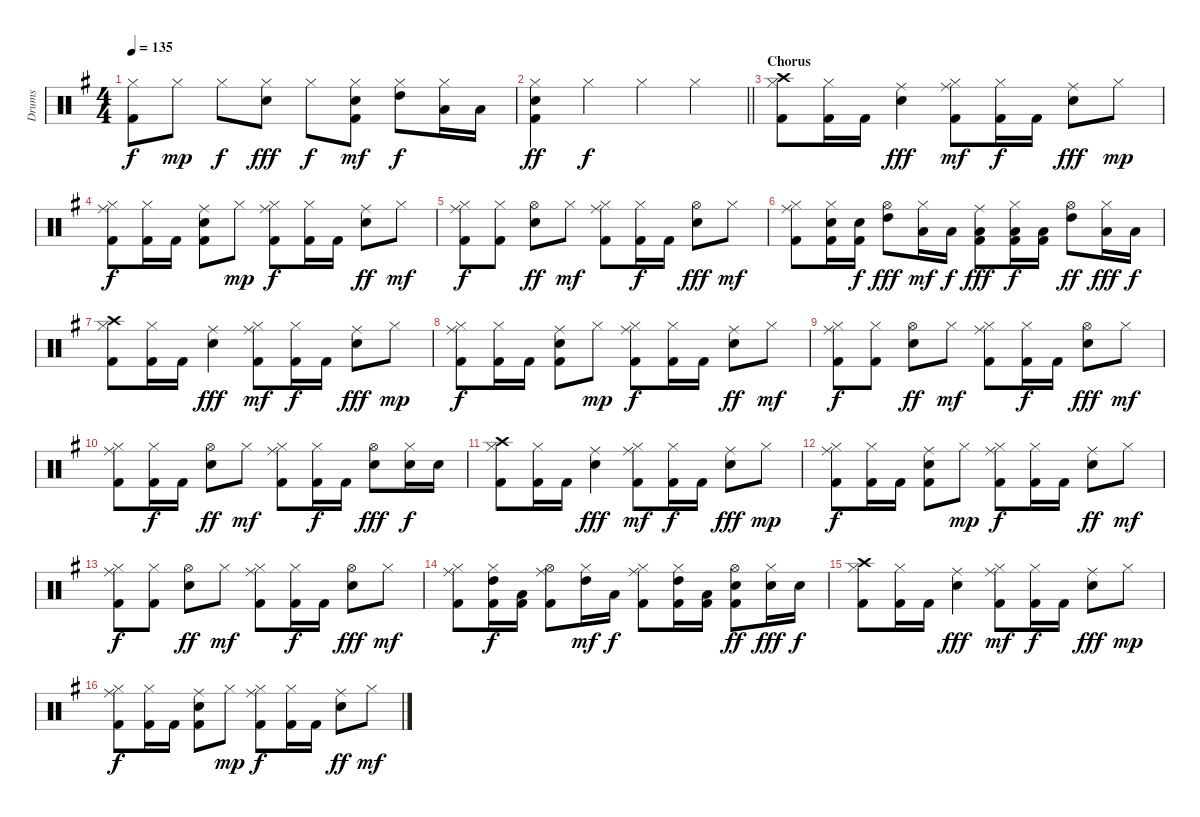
\track ("Drums" "Drums") {instrument percussion}
\staff {score}
\articulation defaults
\ts (4 4)
\tempo 135
\clef neutral
\ks g
("Hi-Hat (closed)" "Kick (hit) 2").8{dy f} "Hi-Hat (closed)".8{dy mp} "Hi-Hat (closed)".8{dy f} ("Hi-Hat (closed)" "Electric Snare (hit)").8{dy fff} "Hi-Hat (closed)".8{dy f} ("Hi-Hat (closed)" "Electric Snare (hit)" "Kick (hit) 2").8{dy mf} ("Hi-Hat (closed)" "High Tom (hit)").8{dy f} ("Hi-Hat (closed)" "Low Tom (hit)").16 "Low Floor Tom (hit)".16 |
\barLineRight lightlight
("Hi-Hat (closed)" "Electric Snare (hit)" "Kick (hit) 2").4{dy ff} "Hi-Hat (closed)".4{dy f} "Hi-Hat (closed)".4 "Hi-Hat (closed)".4 |
\section ("" "Chorus")
("Hi-Hat (closed)" "Crash high (hit)" "Kick (hit) 2").8 ("Hi-Hat (closed)" "Kick (hit) 2").16 "Kick (hit) 2".16 ("Ride (middle)" "Electric Snare (hit)").4{dy fff} ("Hi-Hat (closed)" "Ride (middle)" "Kick (hit) 2").8{dy mf} ("Hi-Hat (closed)" "Kick (hit) 2").16{dy f} "Kick (hit) 2".16 ("Ride (middle)" "Electric Snare (hit)").8{dy fff} "Hi-Hat (closed)".8{dy mp} |
("Hi-Hat (closed)" "Ride (middle)" "Kick (hit) 2").8{dy f} ("Hi-Hat (closed)" "Kick (hit) 2").16 "Kick (hit) 2".16 ("Ride (middle)" "Electric Snare (hit)" "Kick (hit) 2").8 "Hi-Hat (closed)".8{dy mp} ("Hi-Hat (closed)" "Ride (middle)" "Kick (hit) 2").8{dy f} ("Hi-Hat (closed)" "Kick (hit) 2").16 "Kick (hit) 2".16 ("Ride (middle)" "Electric Snare (hit)").8{dy ff} "Hi-Hat (closed)".8{dy mf} |
("Hi-Hat (closed)" "Ride (middle)" "Kick (hit) 2").8{dy f} ("Hi-Hat (closed)" "Kick (hit) 2").8 ("Hi-Hat (open)" "Electric Snare (hit)").8{dy ff} "Hi-Hat (closed)".8{dy mf} ("Hi-Hat (closed)" "Ride (middle)" "Kick (hit) 2").8 ("Hi-Hat (closed)" "Kick (hit) 2").16{dy f} "Kick (hit) 2".16 ("Hi-Hat (open)" "Electric Snare (hit)").8{dy fff} "Hi-Hat (closed)".8{dy mf} |
("Hi-Hat (closed)" "Ride (middle)" "Kick (hit) 2").8 ("Hi-Hat (closed)" "Electric Snare (hit)" "Kick (hit) 2").16 ("Electric Snare (hit)" "Kick (hit) 2").16{dy f} ("Hi-Hat (open)" "High Tom (hit)").8{dy fff} ("Hi-Hat (closed)" "Low Tom (hit)").16{dy mf} "Low Floor Tom (hit)".16{dy f} ("Ride (middle)" "Low Tom (hit)" "Kick (hit) 2").8{dy fff} ("Hi-Hat (closed)" "Low Tom (hit)" "Kick (hit) 2").16{dy f} ("Low Floor Tom (hit)" "Kick (hit) 2").16 ("Hi-Hat (open)" "High Tom (hit)").8{dy ff} ("Hi-Hat (closed)" "Low Floor Tom (hit)").16{dy fff} "Low Floor Tom (hit)".16{dy f} |
("Hi-Hat (closed)" "Crash high (hit)" "Kick (hit) 2").8 ("Hi-Hat (closed)" "Kick (hit) 2").16 "Kick (hit) 2".16 ("Ride (middle)" "Electric Snare (hit)").4{dy fff} ("Hi-Hat (closed)" "Ride (middle)" "Kick (hit) 2").8{dy mf} ("Hi-Hat (closed)" "Kick (hit) 2").16{dy f} "Kick (hit) 2".16 ("Ride (middle)" "Electric Snare (hit)").8{dy fff} "Hi-Hat (closed)".8{dy mp} |
("Hi-Hat (closed)" "Ride (middle)" "Kick (hit) 2").8{dy f} ("Hi-Hat (closed)" "Kick (hit) 2").16 "Kick (hit) 2".16 ("Ride (middle)" "Electric Snare (hit)" "Kick (hit) 2").8 "Hi-Hat (closed)".8{dy mp} ("Hi-Hat (closed)" "Ride (middle)" "Kick (hit) 2").8{dy f} ("Hi-Hat (closed)" "Kick (hit) 2").16 "Kick (hit) 2".16 ("Ride (middle)" "Electric Snare (hit)").8{dy ff} "Hi-Hat (closed)".8{dy mf} |
("Hi-Hat (closed)" "Ride (middle)" "Kick (hit) 2").8{dy f} ("Hi-Hat (closed)" "Kick (hit) 2").8 ("Hi-Hat (open)" "Electric Snare (hit)").8{dy ff} "Hi-Hat (closed)".8{dy mf} ("Hi-Hat (closed)" "Ride (middle)" "Kick (hit) 2").8 ("Hi-Hat (closed)" "Kick (hit) 2").16{dy f} "Kick (hit) 2".16 ("Hi-Hat (open)" "Electric Snare (hit)").8{dy fff} "Hi-Hat (closed)".8{dy mf} |
("Hi-Hat (closed)" "Ride (middle)" "Kick (hit) 2").8 ("Hi-Hat (closed)" "Kick (hit) 2").16{dy f} "Kick (hit) 2".16 ("Hi-Hat (open)" "Electric Snare (hit)").8{dy ff} "Hi-Hat (closed)".8{dy mf} ("Hi-Hat (closed)" "Ride (middle)" "Kick (hit) 2").8 ("Hi-Hat (closed)" "Kick (hit) 2").16{dy f} "Kick (hit) 2".16 ("Hi-Hat (open)" "Electric Snare (hit)").8{dy fff} ("Hi-Hat (closed)" "Electric Snare (hit)").16{dy f} "Electric Snare (hit)".16 |
("Hi-Hat (closed)" "Crash high (hit)" "Kick (hit) 2").8 ("Hi-Hat (closed)" "Kick (hit) 2").16 "Kick (hit) 2".16 ("Ride (middle)" "Electric Snare (hit)").4{dy fff} ("Hi-Hat (closed)" "Ride (middle)" "Kick (hit) 2").8{dy mf} ("Hi-Hat (closed)" "Kick (hit) 2").16{dy f} "Kick (hit) 2".16 ("Ride (middle)" "Electric Snare (hit)").8{dy fff} "Hi-Hat (closed)".8{dy mp} |
("Hi-Hat (closed)" "Ride (middle)" "Kick (hit) 2").8{dy f} ("Hi-Hat (closed)" "Kick (hit) 2").16 "Kick (hit) 2".16 ("Ride (middle)" "Electric Snare (hit)" "Kick (hit) 2").8 "Hi-Hat (closed)".8{dy mp} ("Hi-Hat (closed)" "Ride (middle)" "Kick (hit) 2").8{dy f} ("Hi-Hat (closed)" "Kick (hit) 2").16 "Kick (hit) 2".16 ("Ride (middle)" "Electric Snare (hit)").8{dy ff} "Hi-Hat (closed)".8{dy mf} |
("Hi-Hat (closed)" "Ride (middle)" "Kick (hit) 2").8{dy f} ("Hi-Hat (closed)" "Kick (hit) 2").8 ("Hi-Hat (open)" "Electric Snare (hit)").8{dy ff} "Hi-Hat (closed)".8{dy mf} ("Hi-Hat (closed)" "Ride (middle)" "Kick (hit) 2").8 ("Hi-Hat (closed)" "Kick (hit) 2").16{dy f} "Kick (hit) 2".16 ("Hi-Hat (open)" "Electric Snare (hit)").8{dy fff} "Hi-Hat (closed)".8{dy mf} |
("Hi-Hat (closed)" "Ride (middle)" "Kick (hit) 2").8 ("Hi-Hat (closed)" "High Tom (hit)" "Kick (hit) 2").16{dy f} ("Low Tom (hit)" "Kick (hit) 2").16 ("Hi-Hat (open)" "Ride (middle)" "Kick (hit) 2").8 ("Hi-Hat (closed)" "High Tom (hit)").16{dy mf} "Low Tom (hit)".16{dy f} ("Hi-Hat (closed)" "Ride (middle)" "Kick (hit) 2").8 ("Hi-Hat (closed)" "High Tom (hit)" "Kick (hit) 2").16 ("Low Tom (hit)" "Kick (hit) 2").16 ("Hi-Hat (open)" "Electric Snare (hit)" "Kick (hit) 2").8{dy ff} ("Hi-Hat (closed)" "Electric Snare (hit)").16{dy fff} "Electric Snare (hit)".16{dy f} |
("Hi-Hat (closed)" "Crash high (hit)" "Kick (hit) 2").8 ("Hi-Hat (closed)" "Kick (hit) 2").16 "Kick (hit) 2".16 ("Ride (middle)" "Electric Snare (hit)").4{dy fff} ("Hi-Hat (closed)" "Ride (middle)" "Kick (hit) 2").8{dy mf} ("Hi-Hat (closed)" "Kick (hit) 2").16{dy f} "Kick (hit) 2".16 ("Ride (middle)" "Electric Snare (hit)").8{dy fff} "Hi-Hat (closed)".8{dy mp} |
("Hi-Hat (closed)" "Ride (middle)" "Kick (hit) 2").8{dy f} ("Hi-Hat (closed)" "Kick (hit) 2").16 "Kick (hit) 2".16 ("Ride (middle)" "Electric Snare (hit)" "Kick (hit) 2").8 "Hi-Hat (closed)".8{dy mp} ("Hi-Hat (closed)" "Ride (middle)" "Kick (hit) 2").8{dy f} ("Hi-Hat (closed)" "Kick (hit) 2").16 "Kick (hit) 2".16 ("Ride (middle)" "Electric Snare (hit)").8{dy ff} "Hi-Hat (closed)".8{dy mf}
